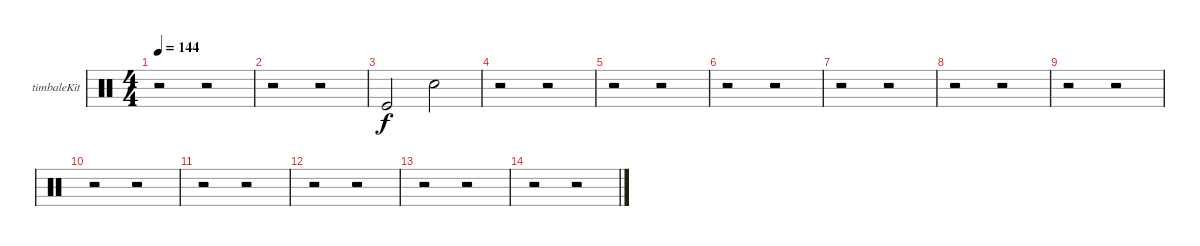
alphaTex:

\bracketExtendMode groupsimilarinstruments
\firstSystemTrackNameOrientation horizontal
\otherSystemsTrackNameOrientation horizontal
\track ("Timbale" "timbaleKit") {instrument percussion}
\staff {score}
\articulation defaults
\ts (4 4)
\tempo 144
\clef neutral
\ks c
r.2{dy f} r.2 |
r.2 r.2 |
"Kick (hit)".2 "Snare (hit) 2".2 |
r.2 r.2 |
r.2 r.2 |
r.2 r.2 |
r.2 r.2 |
r.2 r.2 |
r.2 r.2 |
r.2 r.2 |
r.2 r.2 |
r.2 r.2 |
r.2 r.2 |
r.2 r.2
